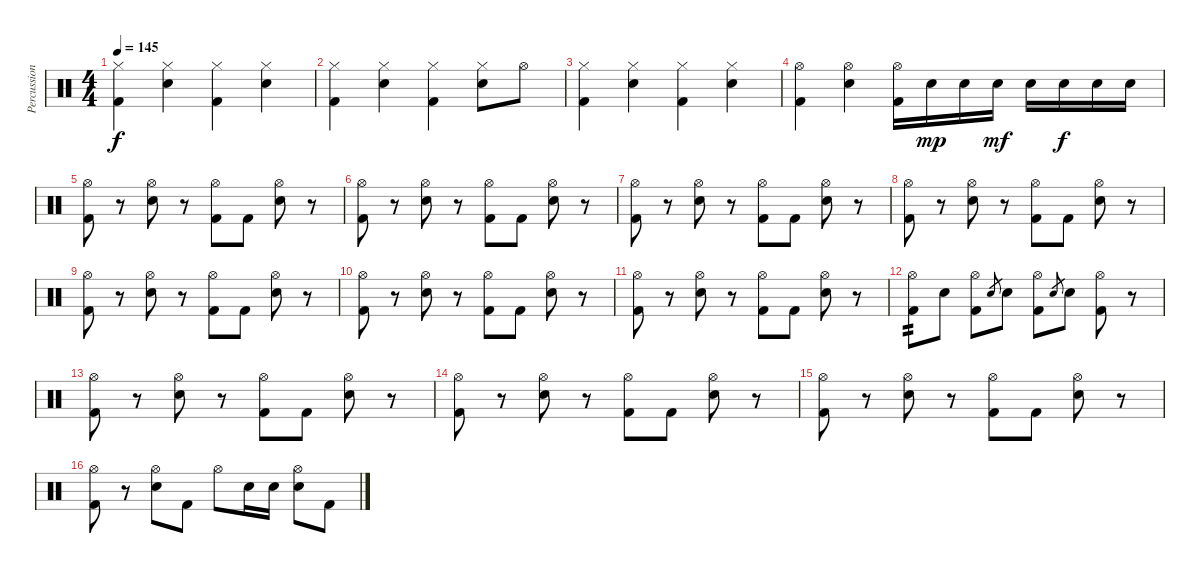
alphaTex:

\track ("Percussion" "Percussion") {instrument percussion}
\staff {score}
\articulation defaults
\ts (4 4)
\tempo 145
\clef neutral
\ks c
("Hi-Hat (closed)" "Kick (hit) 2").4{dy f} ("Hi-Hat (closed)" "Electric Snare (hit)").4 ("Hi-Hat (closed)" "Kick (hit) 2").4 ("Hi-Hat (closed)" "Electric Snare (hit)").4 |
("Hi-Hat (closed)" "Kick (hit) 2").4 ("Hi-Hat (closed)" "Electric Snare (hit)").4 ("Hi-Hat (closed)" "Kick (hit) 2").4 ("Hi-Hat (closed)" "Electric Snare (hit)").8 "Hi-Hat (open)".8 |
("Hi-Hat (closed)" "Kick (hit) 2").4 ("Hi-Hat (closed)" "Electric Snare (hit)").4 ("Hi-Hat (closed)" "Kick (hit) 2").4 ("Hi-Hat (closed)" "Electric Snare (hit)").4 |
("Hi-Hat (open)" "Kick (hit) 2").4 ("Hi-Hat (open)" "Electric Snare (hit)").4 ("Hi-Hat (open)" "Kick (hit) 2").16 "Electric Snare (hit)".16{dy mp} "Electric Snare (hit)".16 "Electric Snare (hit)".16{dy mf} "Electric Snare (hit)".16 "Electric Snare (hit)".16{dy f} "Electric Snare (hit)".16 "Electric Snare (hit)".16 |
("Hi-Hat (open)" "Kick (hit) 2").8 r.8 ("Hi-Hat (open)" "Electric Snare (hit)").8 r.8 ("Hi-Hat (open)" "Kick (hit) 2").8 "Kick (hit) 2".8 ("Hi-Hat (open)" "Electric Snare (hit)").8 r.8 |
("Hi-Hat (open)" "Kick (hit) 2").8 r.8 ("Hi-Hat (open)" "Electric Snare (hit)").8 r.8 ("Hi-Hat (open)" "Kick (hit) 2").8 "Kick (hit) 2".8 ("Hi-Hat (open)" "Electric Snare (hit)").8 r.8 |
("Hi-Hat (open)" "Kick (hit) 2").8 r.8 ("Hi-Hat (open)" "Electric Snare (hit)").8 r.8 ("Hi-Hat (open)" "Kick (hit) 2").8 "Kick (hit) 2".8 ("Hi-Hat (open)" "Electric Snare (hit)").8 r.8 |
("Hi-Hat (open)" "Kick (hit) 2").8 r.8 ("Hi-Hat (open)" "Electric Snare (hit)").8 r.8 ("Hi-Hat (open)" "Kick (hit) 2").8 "Kick (hit) 2".8 ("Hi-Hat (open)" "Electric Snare (hit)").8 r.8 |
("Hi-Hat (open)" "Kick (hit) 2").8 r.8 ("Hi-Hat (open)" "Electric Snare (hit)").8 r.8 ("Hi-Hat (open)" "Kick (hit) 2").8 "Kick (hit) 2".8 ("Hi-Hat (open)" "Electric Snare (hit)").8 r.8 |
("Hi-Hat (open)" "Kick (hit) 2").8 r.8 ("Hi-Hat (open)" "Electric Snare (hit)").8 r.8 ("Hi-Hat (open)" "Kick (hit) 2").8 "Kick (hit) 2".8 ("Hi-Hat (open)" "Electric Snare (hit)").8 r.8 |
("Hi-Hat (open)" "Kick (hit) 2").8 r.8 ("Hi-Hat (open)" "Electric Snare (hit)").8 r.8 ("Hi-Hat (open)" "Kick (hit) 2").8 "Kick (hit) 2".8 ("Hi-Hat (open)" "Electric Snare (hit)").8 r.8 |
("Hi-Hat (open)" "Kick (hit) 2").8{tp 2} "Electric Snare (hit)".8 ("Hi-Hat (open)" "Kick (hit) 2").8 "Electric Snare (hit)".8{gr} "Electric Snare (hit)".8 ("Hi-Hat (open)" "Kick (hit) 2").8 "Electric Snare (hit)".8{gr} "Electric Snare (hit)".8 ("Hi-Hat (open)" "Kick (hit) 2").8 r.8 |
("Hi-Hat (open)" "Kick (hit) 2").8 r.8 ("Hi-Hat (open)" "Electric Snare (hit)").8 r.8 ("Hi-Hat (open)" "Kick (hit) 2").8 "Kick (hit) 2".8 ("Hi-Hat (open)" "Electric Snare (hit)").8 r.8 |
("Hi-Hat (open)" "Kick (hit) 2").8 r.8 ("Hi-Hat (open)" "Electric Snare (hit)").8 r.8 ("Hi-Hat (open)" "Kick (hit) 2").8 "Kick (hit) 2".8 ("Hi-Hat (open)" "Electric Snare (hit)").8 r.8 |
("Hi-Hat (open)" "Kick (hit) 2").8 r.8 ("Hi-Hat (open)" "Electric Snare (hit)").8 r.8 ("Hi-Hat (open)" "Kick (hit) 2").8 "Kick (hit) 2".8 ("Hi-Hat (open)" "Electric Snare (hit)").8 r.8 |
("Hi-Hat (open)" "Kick (hit) 2").8 r.8 ("Hi-Hat (open)" "Electric Snare (hit)").8 "Kick (hit) 2".8 "Hi-Hat (open)".8 "Electric Snare (hit)".16 "Electric Snare (hit)".16 ("Hi-Hat (open)" "Electric Snare (hit)").8 "Kick (hit) 2".8
